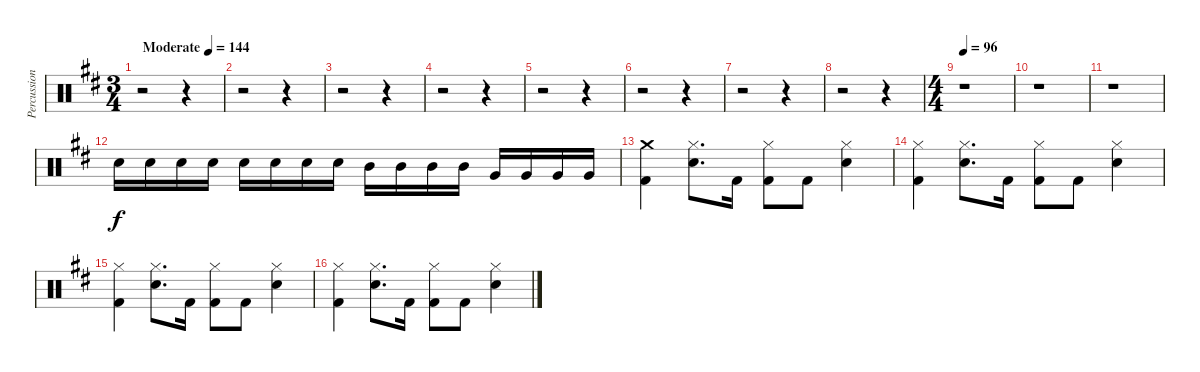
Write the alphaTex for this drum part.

\track ("Percussion" "Percussion") {instrument percussion}
\staff {score}
\articulation defaults
\ts (3 4)
\tempo (144 "Moderate")
\clef neutral
\ks d
r.2{dy f} r.4 |
r.2 r.4 |
r.2 r.4 |
r.2 r.4 |
r.2 r.4 |
r.2 r.4 |
r.2 r.4 |
r.2 r.4 |
\ts (4 4)
\tempo 96
r.1 |
r.1 |
r.1 |
"Snare (hit) 2".16{volume 3} "Snare (hit) 2".16{volume 13} "Snare (hit) 2".16 "Snare (hit) 2".16 "Snare (hit) 2".16 "Snare (hit) 2".16 "Snare (hit) 2".16 "Snare (hit) 2".16 "Mid Tom (hit)".16 "Mid Tom (hit)".16 "Mid Tom (hit)".16 "Mid Tom (hit)".16 "Very Low Tom (hit)".16 "Very Low Tom (hit)".16 "Very Low Tom (hit)".16 "Very Low Tom (hit)".16 |
("Crash medium (hit)" "Kick (hit) 2").4 ("Hi-Hat (closed)" "Snare (hit) 2").8{d} "Kick (hit) 2".16 ("Hi-Hat (closed)" "Kick (hit) 2").8 "Kick (hit) 2".8 ("Hi-Hat (closed)" "Snare (hit) 2").4 |
("Hi-Hat (closed)" "Kick (hit) 2").4 ("Hi-Hat (closed)" "Snare (hit) 2").8{d} "Kick (hit) 2".16 ("Hi-Hat (closed)" "Kick (hit) 2").8 "Kick (hit) 2".8 ("Hi-Hat (closed)" "Snare (hit) 2").4 |
("Hi-Hat (closed)" "Kick (hit) 2").4 ("Hi-Hat (closed)" "Snare (hit) 2").8{d} "Kick (hit) 2".16 ("Hi-Hat (closed)" "Kick (hit) 2").8 "Kick (hit) 2".8 ("Hi-Hat (closed)" "Snare (hit) 2").4 |
("Hi-Hat (closed)" "Kick (hit) 2").4 ("Hi-Hat (closed)" "Snare (hit) 2").8{d} "Kick (hit) 2".16 ("Hi-Hat (closed)" "Kick (hit) 2").8 "Kick (hit) 2".8 ("Hi-Hat (closed)" "Snare (hit) 2").4
